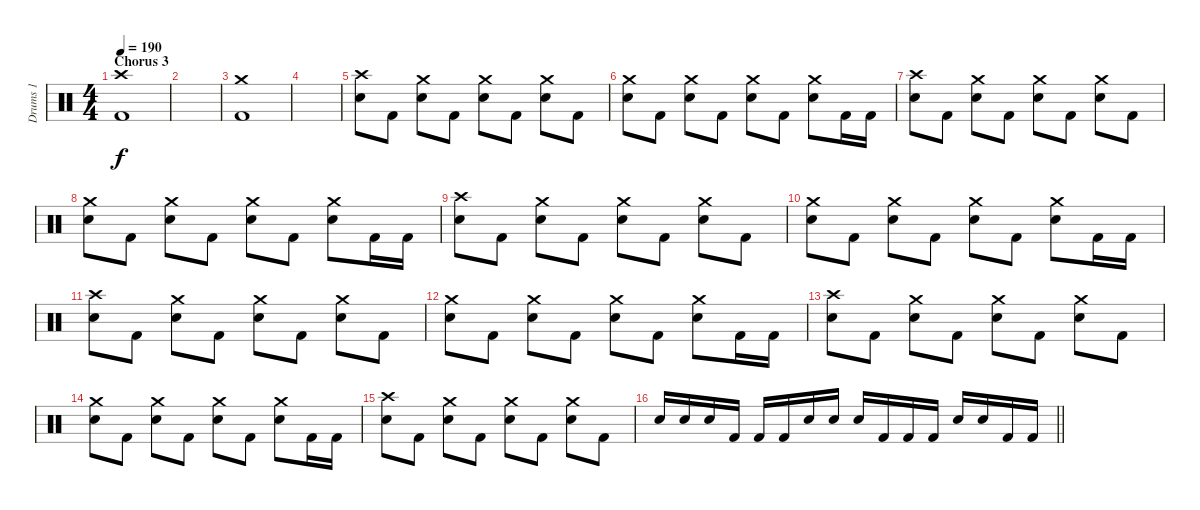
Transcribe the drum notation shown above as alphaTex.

\track ("Drums 1" "Drums 1") {instrument percussion}
\staff {score}
\articulation defaults
\ts (4 4)
\section ("" "Chorus 3")
\tempo 190
\clef neutral
\ks c
("Crash high (hit)" "Kick (hit) 2").1{dy f} |
|
("Crash medium (hit)" "Kick (hit) 2").1 |
|
("Crash high (hit)" "Snare (hit) 2").8 "Kick (hit) 2".8 ("Crash medium (hit)" "Snare (hit) 2").8 "Kick (hit) 2".8 ("Crash medium (hit)" "Snare (hit) 2").8 "Kick (hit) 2".8 ("Crash medium (hit)" "Snare (hit) 2").8 "Kick (hit) 2".8 |
("Crash medium (hit)" "Snare (hit) 2").8 "Kick (hit) 2".8 ("Crash medium (hit)" "Snare (hit) 2").8 "Kick (hit) 2".8 ("Crash medium (hit)" "Snare (hit) 2").8 "Kick (hit) 2".8 ("Crash medium (hit)" "Snare (hit) 2").8 "Kick (hit) 2".16 "Kick (hit) 2".16 |
("Crash high (hit)" "Snare (hit) 2").8 "Kick (hit) 2".8 ("Crash medium (hit)" "Snare (hit) 2").8 "Kick (hit) 2".8 ("Crash medium (hit)" "Snare (hit) 2").8 "Kick (hit) 2".8 ("Crash medium (hit)" "Snare (hit) 2").8 "Kick (hit) 2".8 |
("Crash medium (hit)" "Snare (hit) 2").8 "Kick (hit) 2".8 ("Crash medium (hit)" "Snare (hit) 2").8 "Kick (hit) 2".8 ("Crash medium (hit)" "Snare (hit) 2").8 "Kick (hit) 2".8 ("Crash medium (hit)" "Snare (hit) 2").8 "Kick (hit) 2".16 "Kick (hit) 2".16 |
("Crash high (hit)" "Snare (hit) 2").8 "Kick (hit) 2".8 ("Crash medium (hit)" "Snare (hit) 2").8 "Kick (hit) 2".8 ("Crash medium (hit)" "Snare (hit) 2").8 "Kick (hit) 2".8 ("Crash medium (hit)" "Snare (hit) 2").8 "Kick (hit) 2".8 |
("Crash medium (hit)" "Snare (hit) 2").8 "Kick (hit) 2".8 ("Crash medium (hit)" "Snare (hit) 2").8 "Kick (hit) 2".8 ("Crash medium (hit)" "Snare (hit) 2").8 "Kick (hit) 2".8 ("Crash medium (hit)" "Snare (hit) 2").8 "Kick (hit) 2".16 "Kick (hit) 2".16 |
("Crash high (hit)" "Snare (hit) 2").8 "Kick (hit) 2".8 ("Crash medium (hit)" "Snare (hit) 2").8 "Kick (hit) 2".8 ("Crash medium (hit)" "Snare (hit) 2").8 "Kick (hit) 2".8 ("Crash medium (hit)" "Snare (hit) 2").8 "Kick (hit) 2".8 |
("Crash medium (hit)" "Snare (hit) 2").8 "Kick (hit) 2".8 ("Crash medium (hit)" "Snare (hit) 2").8 "Kick (hit) 2".8 ("Crash medium (hit)" "Snare (hit) 2").8 "Kick (hit) 2".8 ("Crash medium (hit)" "Snare (hit) 2").8 "Kick (hit) 2".16 "Kick (hit) 2".16 |
("Crash high (hit)" "Snare (hit) 2").8 "Kick (hit) 2".8 ("Crash medium (hit)" "Snare (hit) 2").8 "Kick (hit) 2".8 ("Crash medium (hit)" "Snare (hit) 2").8 "Kick (hit) 2".8 ("Crash medium (hit)" "Snare (hit) 2").8 "Kick (hit) 2".8 |
("Crash medium (hit)" "Snare (hit) 2").8 "Kick (hit) 2".8 ("Crash medium (hit)" "Snare (hit) 2").8 "Kick (hit) 2".8 ("Crash medium (hit)" "Snare (hit) 2").8 "Kick (hit) 2".8 ("Crash medium (hit)" "Snare (hit) 2").8 "Kick (hit) 2".16 "Kick (hit) 2".16 |
("Crash high (hit)" "Snare (hit) 2").8 "Kick (hit) 2".8 ("Crash medium (hit)" "Snare (hit) 2").8 "Kick (hit) 2".8 ("Crash medium (hit)" "Snare (hit) 2").8 "Kick (hit) 2".8 ("Crash medium (hit)" "Snare (hit) 2").8 "Kick (hit) 2".8 |
\barLineRight lightlight "Snare (hit) 2".16 "Snare (hit) 2".16 "Snare (hit) 2".16 "Kick (hit) 2".16 "Kick (hit) 2".16 "Kick (hit) 2".16 "Snare (hit) 2".16 "Snare (hit) 2".16 "Snare (hit) 2".16 "Kick (hit) 2".16 "Kick (hit) 2".16 "Kick (hit) 2".16 "Snare (hit) 2".16 "Snare (hit) 2".16 "Kick (hit) 2".16 "Kick (hit) 2".16
